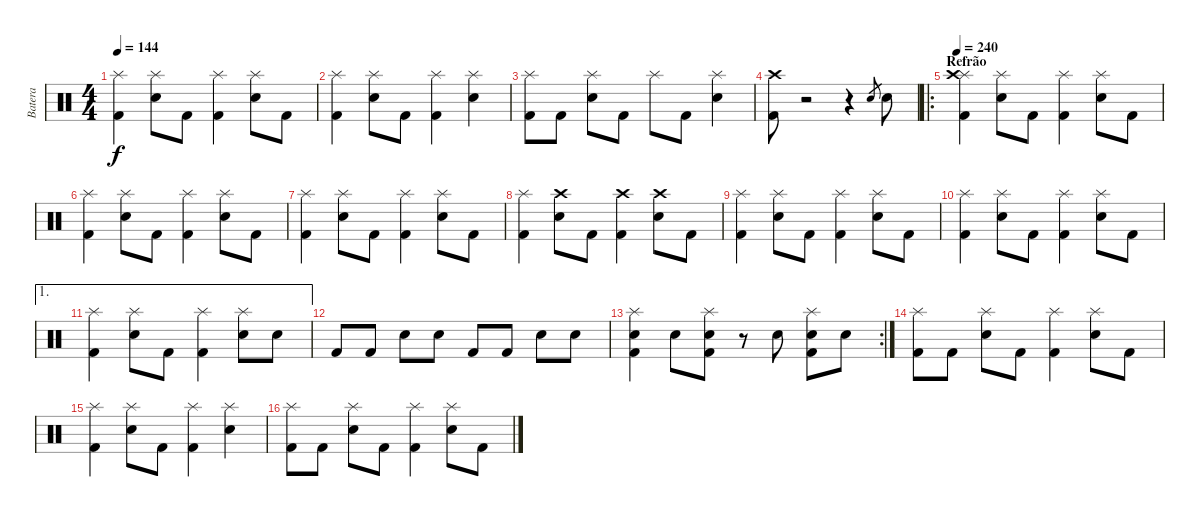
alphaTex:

\track ("Batera" "Batera") {instrument percussion}
\staff {score}
\articulation defaults
\ts (4 4)
\tempo 144
\clef neutral
\ks c
("Splash (hit)" "Kick (hit) 2").4{dy f} ("Splash (hit)" "Snare (hit) 2").8 "Kick (hit) 2".8 ("Splash (hit)" "Kick (hit) 2").4 ("Splash (hit)" "Snare (hit) 2").8 "Kick (hit) 2".8 |
("Splash (hit)" "Kick (hit) 2").4 ("Splash (hit)" "Snare (hit) 2").8 "Kick (hit) 2".8 ("Splash (hit)" "Kick (hit) 2").4 ("Splash (hit)" "Snare (hit) 2").4 |
("Splash (hit)" "Kick (hit) 2").8 "Kick (hit) 2".8 ("Splash (hit)" "Snare (hit) 2").8 "Kick (hit) 2".8 "Splash (hit)".8 "Kick (hit) 2".8 ("Splash (hit)" "Snare (hit) 2").4 |
("Crash high (hit)" "Kick (hit) 2").8 r.2 r.4 "Snare (hit) 2".8{gr} "Snare (hit) 2".8 |
\ro
\section ("" "Refrão")
\tempo 240
("Splash (hit)" "Crash high (hit)" "Kick (hit) 2").4 ("Splash (hit)" "Snare (hit) 2").8 "Kick (hit) 2".8 ("Splash (hit)" "Kick (hit) 2").4 ("Splash (hit)" "Snare (hit) 2").8 "Kick (hit) 2".8 |
("Splash (hit)" "Kick (hit) 2").4 ("Splash (hit)" "Snare (hit) 2").8 "Kick (hit) 2".8 ("Splash (hit)" "Kick (hit) 2").4 ("Splash (hit)" "Snare (hit) 2").8 "Kick (hit) 2".8 |
("Splash (hit)" "Kick (hit) 2").4 ("Splash (hit)" "Snare (hit) 2").8 "Kick (hit) 2".8 ("Splash (hit)" "Kick (hit) 2").4 ("Splash (hit)" "Snare (hit) 2").8 "Kick (hit) 2".8 |
("Splash (hit)" "Kick (hit) 2").4 ("Crash high (hit)" "Snare (hit) 2").8 "Kick (hit) 2".8 ("Crash high (hit)" "Kick (hit) 2").4 ("Crash high (hit)" "Snare (hit) 2").8 "Kick (hit) 2".8 |
("Splash (hit)" "Kick (hit) 2").4 ("Splash (hit)" "Snare (hit) 2").8 "Kick (hit) 2".8 ("Splash (hit)" "Kick (hit) 2").4 ("Splash (hit)" "Snare (hit) 2").8 "Kick (hit) 2".8 |
("Splash (hit)" "Kick (hit) 2").4 ("Splash (hit)" "Snare (hit) 2").8 "Kick (hit) 2".8 ("Splash (hit)" "Kick (hit) 2").4 ("Splash (hit)" "Snare (hit) 2").8 "Kick (hit) 2".8 |
\ae 1
("Splash (hit)" "Kick (hit) 2").4 ("Splash (hit)" "Snare (hit) 2").8 "Kick (hit) 2".8 ("Splash (hit)" "Kick (hit) 2").4 ("Splash (hit)" "Snare (hit) 2").8 "Snare (hit) 2".8 |
"Kick (hit) 2".8 "Kick (hit) 2".8 "Snare (hit) 2".8 "Snare (hit) 2".8 "Kick (hit) 2".8 "Kick (hit) 2".8 "Snare (hit) 2".8 "Snare (hit) 2".8 |
\rc 2
("Splash (hit)" "Snare (hit) 2" "Kick (hit) 2").4 "Snare (hit) 2".8 ("Splash (hit)" "Snare (hit) 2" "Kick (hit) 2").8 r.8 "Snare (hit) 2".8 ("Splash (hit)" "Snare (hit) 2" "Kick (hit) 2").8 "Snare (hit) 2".8 |
("Splash (hit)" "Kick (hit) 2").8 "Kick (hit) 2".8 ("Splash (hit)" "Snare (hit) 2").8 "Kick (hit) 2".8 ("Splash (hit)" "Kick (hit) 2").4 ("Splash (hit)" "Snare (hit) 2").8 "Kick (hit) 2".8 |
("Splash (hit)" "Kick (hit) 2").4 ("Splash (hit)" "Snare (hit) 2").8 "Kick (hit) 2".8 ("Splash (hit)" "Kick (hit) 2").4 ("Splash (hit)" "Snare (hit) 2").4 |
("Splash (hit)" "Kick (hit) 2").8 "Kick (hit) 2".8 ("Splash (hit)" "Snare (hit) 2").8 "Kick (hit) 2".8 ("Splash (hit)" "Kick (hit) 2").4 ("Splash (hit)" "Snare (hit) 2").8 "Kick (hit) 2".8
